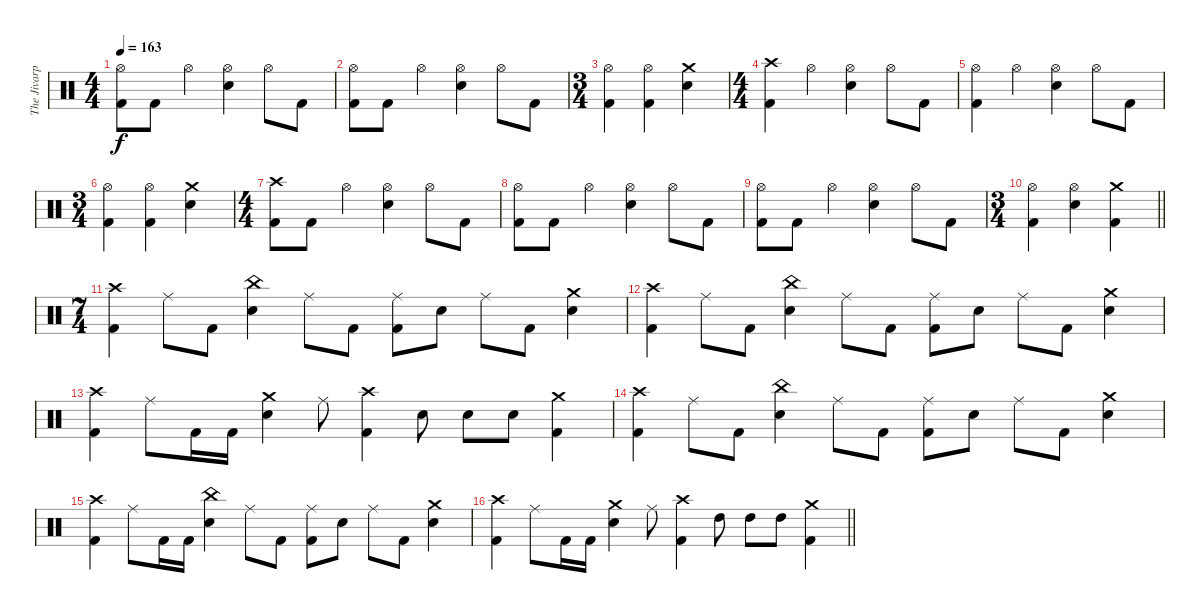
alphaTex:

\track ("The Jivarp" "The Jivarp") {instrument percussion}
\staff {score}
\articulation defaults
\ts (4 4)
\tempo 163
\clef neutral
\ks c
("Hi-Hat (open)" "Kick (hit) 2").8{dy f} "Kick (hit) 2".8 "Hi-Hat (open)".4 ("Hi-Hat (open)" "Electric Snare (hit)").4 "Hi-Hat (open)".8 "Kick (hit) 2".8 |
("Hi-Hat (open)" "Kick (hit) 2").8 "Kick (hit) 2".8 "Hi-Hat (open)".4 ("Hi-Hat (open)" "Electric Snare (hit)").4 "Hi-Hat (open)".8 "Kick (hit) 2".8 |
\ts (3 4)
("Hi-Hat (open)" "Kick (hit) 2").4 ("Hi-Hat (open)" "Kick (hit) 2").4 ("Crash medium (hit)" "Electric Snare (hit)").4 |
\ts (4 4)
("Crash high (hit)" "Kick (hit) 2").4 "Hi-Hat (open)".4 ("Hi-Hat (open)" "Electric Snare (hit)").4 "Hi-Hat (open)".8 "Kick (hit) 2".8 |
("Hi-Hat (open)" "Kick (hit) 2").4 "Hi-Hat (open)".4 ("Hi-Hat (open)" "Electric Snare (hit)").4 "Hi-Hat (open)".8 "Kick (hit) 2".8 |
\ts (3 4)
("Hi-Hat (open)" "Kick (hit) 2").4 ("Hi-Hat (open)" "Kick (hit) 2").4 ("Crash medium (hit)" "Electric Snare (hit)").4 |
\ts (4 4)
("Crash high (hit)" "Kick (hit) 2").8 "Kick (hit) 2".8 "Hi-Hat (open)".4 ("Hi-Hat (open)" "Electric Snare (hit)").4 "Hi-Hat (open)".8 "Kick (hit) 2".8 |
("Hi-Hat (open)" "Kick (hit) 2").8 "Kick (hit) 2".8 "Hi-Hat (open)".4 ("Hi-Hat (open)" "Electric Snare (hit)").4 "Hi-Hat (open)".8 "Kick (hit) 2".8 |
("Hi-Hat (open)" "Kick (hit) 2").8 "Kick (hit) 2".8 "Hi-Hat (open)".4 ("Hi-Hat (open)" "Electric Snare (hit)").4 "Hi-Hat (open)".8 "Kick (hit) 2".8 |
\ts (3 4)
\barLineRight lightlight
("Hi-Hat (open)" "Kick (hit) 2").4 ("Hi-Hat (open)" "Electric Snare (hit)").4 ("Crash medium (hit)" "Kick (hit) 2").4 |
\ts (7 4)
\section ("" "")
("Crash high (hit)" "Kick (hit) 2").4 "Ride (middle)".8 "Kick (hit) 2".8 ("China (hit)" "Electric Snare (hit)").4 "Ride (middle)".8 "Kick (hit) 2".8 ("Ride (middle)" "Kick (hit) 2").8 "Electric Snare (hit)".8 "Ride (middle)".8 "Kick (hit) 2".8 ("Crash medium (hit)" "Electric Snare (hit)").4 |
("Crash high (hit)" "Kick (hit) 2").4 "Ride (middle)".8 "Kick (hit) 2".8 ("China (hit)" "Electric Snare (hit)").4 "Ride (middle)".8 "Kick (hit) 2".8 ("Ride (middle)" "Kick (hit) 2").8 "Electric Snare (hit)".8 "Ride (middle)".8 "Kick (hit) 2".8 ("Crash medium (hit)" "Electric Snare (hit)").4 |
("Crash high (hit)" "Kick (hit) 2").4 "Ride (middle)".8 "Kick (hit) 2".16 "Kick (hit) 2".16 ("Crash medium (hit)" "Electric Snare (hit)").4 "Ride (middle)".8 ("Crash high (hit)" "Kick (hit) 2").4 "Electric Snare (hit)".8 "Electric Snare (hit)".8 "Electric Snare (hit)".8 ("Crash medium (hit)" "Kick (hit) 2").4 |
("Crash high (hit)" "Kick (hit) 2").4 "Ride (middle)".8 "Kick (hit) 2".8 ("China (hit)" "Electric Snare (hit)").4 "Ride (middle)".8 "Kick (hit) 2".8 ("Ride (middle)" "Kick (hit) 2").8 "Electric Snare (hit)".8 "Ride (middle)".8 "Kick (hit) 2".8 ("Crash medium (hit)" "Electric Snare (hit)").4 |
("Crash high (hit)" "Kick (hit) 2").4 "Ride (middle)".8 "Kick (hit) 2".16 "Kick (hit) 2".16 ("China (hit)" "Electric Snare (hit)").4 "Ride (middle)".8 "Kick (hit) 2".8 ("Ride (middle)" "Kick (hit) 2").8 "Electric Snare (hit)".8 "Ride (middle)".8 "Kick (hit) 2".8 ("Crash medium (hit)" "Electric Snare (hit)").4 |
\barLineRight lightlight
("Crash high (hit)" "Kick (hit) 2").4 "Ride (middle)".8 "Kick (hit) 2".16 "Kick (hit) 2".16 ("Crash medium (hit)" "Electric Snare (hit)").4 "Ride (middle)".8 ("Crash high (hit)" "Kick (hit) 2").4 "High Tom (hit)".8 "High Tom (hit)".8 "High Tom (hit)".8 ("Crash medium (hit)" "Kick (hit) 2").4
